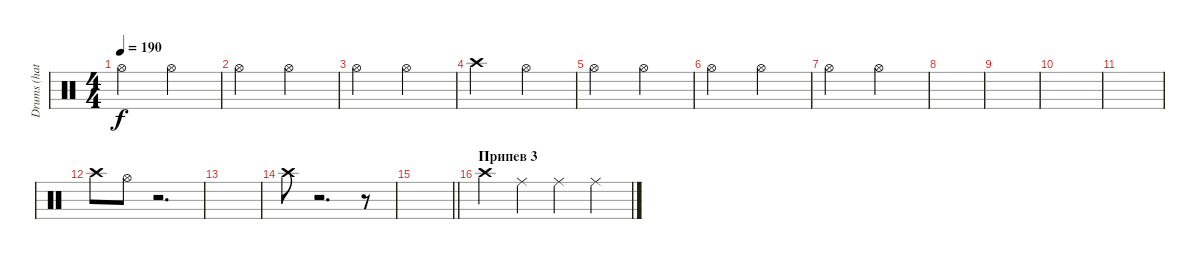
\track ("Drums (hats)" "Drums (hat") {instrument percussion}
\staff {score}
\articulation defaults
\ts (4 4)
\tempo 190
\clef neutral
\ks c "Hi-Hat (open)".2{dy f} "Hi-Hat (open)".2
|
"Hi-Hat (open)".2 "Hi-Hat (open)".2 |
"Hi-Hat (open)".2 "Hi-Hat (open)".2 |
"Crash high (hit)".2 "Hi-Hat (open)".2 |
"Hi-Hat (open)".2 "Hi-Hat (open)".2 |
"Hi-Hat (open)".2 "Hi-Hat (open)".2 |
"Hi-Hat (open)".2 "Hi-Hat (open)".2 |
|
|
|
|
"Crash high (hit)".8 "Hi-Hat (open)".8 r.2{d} |
|
"Crash high (hit)".8 r.2{d} r.8 |
\barLineRight lightlight
|
\section ("" "Припев 3")
"Crash high (hit)".4 "Ride (middle)".4 "Ride (middle)".4 "Ride (middle)".4
